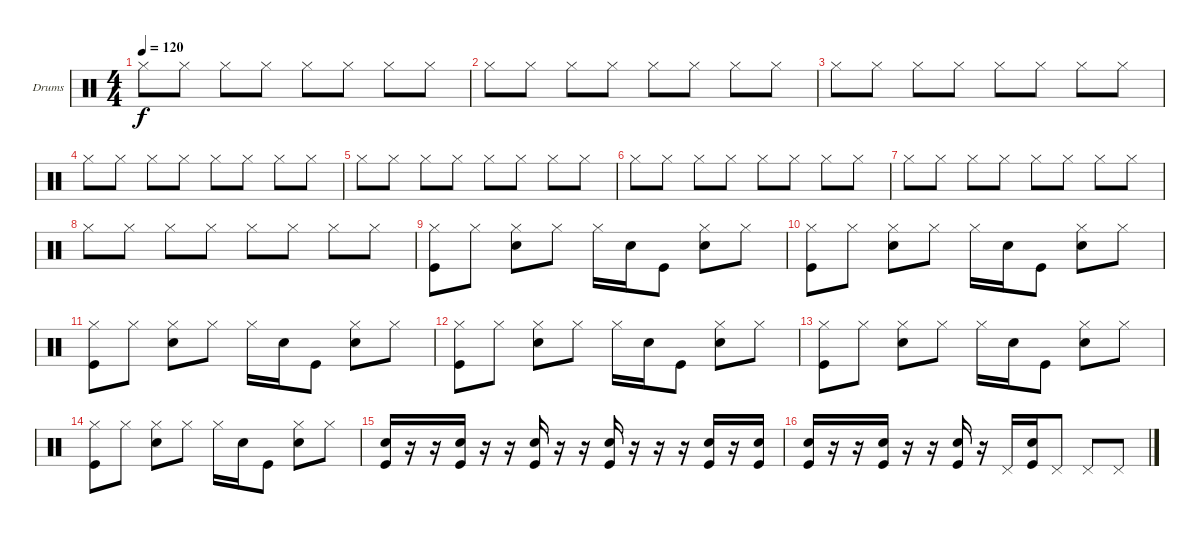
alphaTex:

\bracketExtendMode groupsimilarinstruments
\firstSystemTrackNameOrientation horizontal
\otherSystemsTrackNameOrientation horizontal
\track ("Ударные" "Drums") {instrument percussion}
\staff {score}
\articulation defaults
\ts (4 4)
\tempo 120
\clef neutral
\ks c "Hi-Hat (closed)".8{dy f} "Hi-Hat (closed)".8 "Hi-Hat (closed)".8 "Hi-Hat (closed)".8 "Hi-Hat (closed)".8 "Hi-Hat (closed)".8 "Hi-Hat (closed)".8 "Hi-Hat (closed)".8
|
"Hi-Hat (closed)".8 "Hi-Hat (closed)".8 "Hi-Hat (closed)".8 "Hi-Hat (closed)".8 "Hi-Hat (closed)".8 "Hi-Hat (closed)".8 "Hi-Hat (closed)".8 "Hi-Hat (closed)".8 |
"Hi-Hat (closed)".8 "Hi-Hat (closed)".8 "Hi-Hat (closed)".8 "Hi-Hat (closed)".8 "Hi-Hat (closed)".8 "Hi-Hat (closed)".8 "Hi-Hat (closed)".8 "Hi-Hat (closed)".8 |
"Hi-Hat (closed)".8 "Hi-Hat (closed)".8 "Hi-Hat (closed)".8 "Hi-Hat (closed)".8 "Hi-Hat (closed)".8 "Hi-Hat (closed)".8 "Hi-Hat (closed)".8 "Hi-Hat (closed)".8 |
"Hi-Hat (closed)".8 "Hi-Hat (closed)".8 "Hi-Hat (closed)".8 "Hi-Hat (closed)".8 "Hi-Hat (closed)".8 "Hi-Hat (closed)".8 "Hi-Hat (closed)".8 "Hi-Hat (closed)".8 |
"Hi-Hat (closed)".8 "Hi-Hat (closed)".8 "Hi-Hat (closed)".8 "Hi-Hat (closed)".8 "Hi-Hat (closed)".8 "Hi-Hat (closed)".8 "Hi-Hat (closed)".8 "Hi-Hat (closed)".8 |
"Hi-Hat (closed)".8 "Hi-Hat (closed)".8 "Hi-Hat (closed)".8 "Hi-Hat (closed)".8 "Hi-Hat (closed)".8 "Hi-Hat (closed)".8 "Hi-Hat (closed)".8 "Hi-Hat (closed)".8 |
"Hi-Hat (closed)".8 "Hi-Hat (closed)".8 "Hi-Hat (closed)".8 "Hi-Hat (closed)".8 "Hi-Hat (closed)".8 "Hi-Hat (closed)".8 "Hi-Hat (closed)".8 "Hi-Hat (closed)".8 |
("Hi-Hat (closed)" "Kick (hit)").8 "Hi-Hat (closed)".8 ("Hi-Hat (closed)" "Snare (hit) 2").8 "Hi-Hat (closed)".8 "Hi-Hat (closed)".16 "Snare (hit) 2".16 "Kick (hit)".8 ("Hi-Hat (closed)" "Snare (hit) 2").8 "Hi-Hat (closed)".8 |
("Hi-Hat (closed)" "Kick (hit)").8 "Hi-Hat (closed)".8 ("Hi-Hat (closed)" "Snare (hit) 2").8 "Hi-Hat (closed)".8 "Hi-Hat (closed)".16 "Snare (hit) 2".16 "Kick (hit)".8 ("Hi-Hat (closed)" "Snare (hit) 2").8 "Hi-Hat (closed)".8 |
("Hi-Hat (closed)" "Kick (hit)").8 "Hi-Hat (closed)".8 ("Hi-Hat (closed)" "Snare (hit) 2").8 "Hi-Hat (closed)".8 "Hi-Hat (closed)".16 "Snare (hit) 2".16 "Kick (hit)".8 ("Hi-Hat (closed)" "Snare (hit) 2").8 "Hi-Hat (closed)".8 |
("Hi-Hat (closed)" "Kick (hit)").8 "Hi-Hat (closed)".8 ("Hi-Hat (closed)" "Snare (hit) 2").8 "Hi-Hat (closed)".8 "Hi-Hat (closed)".16 "Snare (hit) 2".16 "Kick (hit)".8 ("Hi-Hat (closed)" "Snare (hit) 2").8 "Hi-Hat (closed)".8 |
("Hi-Hat (closed)" "Kick (hit)").8 "Hi-Hat (closed)".8 ("Hi-Hat (closed)" "Snare (hit) 2").8 "Hi-Hat (closed)".8 "Hi-Hat (closed)".16 "Snare (hit) 2".16 "Kick (hit)".8 ("Hi-Hat (closed)" "Snare (hit) 2").8 "Hi-Hat (closed)".8 |
("Hi-Hat (closed)" "Kick (hit)").8 "Hi-Hat (closed)".8 ("Hi-Hat (closed)" "Snare (hit) 2").8 "Hi-Hat (closed)".8 "Hi-Hat (closed)".16 "Snare (hit) 2".16 "Kick (hit)".8 ("Hi-Hat (closed)" "Snare (hit) 2").8 "Hi-Hat (closed)".8 |
("Snare (hit) 2" "Kick (hit)").16 r.16 r.16 ("Snare (hit) 2" "Kick (hit)").16 r.16 r.16 ("Snare (hit) 2" "Kick (hit)").16 r.16 r.16 ("Snare (hit) 2" "Kick (hit)").16 r.16 r.16 r.16 ("Snare (hit) 2" "Kick (hit)").16 r.16 ("Snare (hit) 2" "Kick (hit)").16 |
("Snare (hit) 2" "Kick (hit)").16 r.16 r.16 ("Snare (hit) 2" "Kick (hit)").16 r.16 r.16 ("Snare (hit) 2" "Kick (hit)").16 r.16 "Pedal Hi-Hat (hit)".16 ("Snare (hit) 2" "Kick (hit)").16 "Pedal Hi-Hat (hit)".8 "Pedal Hi-Hat (hit)".8 "Pedal Hi-Hat (hit)".8
